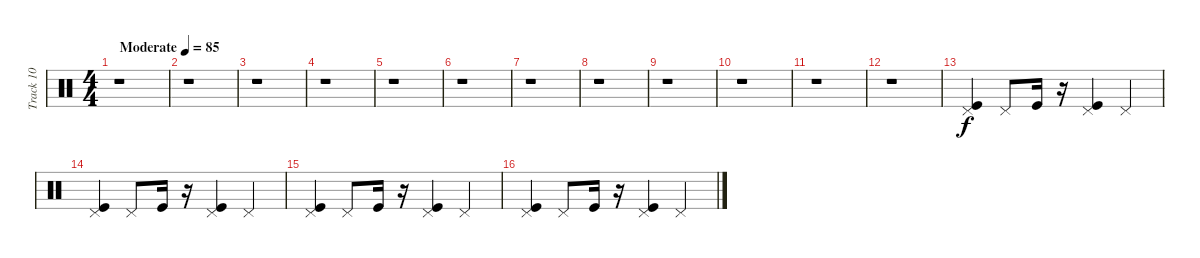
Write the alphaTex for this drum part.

\track ("Track 10" "Track 10") {instrument percussion}
\staff {score}
\articulation defaults
\ts (4 4)
\tempo (85 "Moderate")
\clef neutral
\ks c
r.1{dy f} |
r.1 |
r.1 |
r.1 |
r.1 |
r.1 |
r.1 |
r.1 |
r.1 |
r.1 |
r.1 |
r.1 |
("Kick (hit)" "Pedal Hi-Hat (hit)").4 "Pedal Hi-Hat (hit)".8 "Kick (hit)".16 r.16 ("Kick (hit)" "Pedal Hi-Hat (hit)").4 "Pedal Hi-Hat (hit)".4 |
("Kick (hit)" "Pedal Hi-Hat (hit)").4 "Pedal Hi-Hat (hit)".8 "Kick (hit)".16 r.16 ("Kick (hit)" "Pedal Hi-Hat (hit)").4 "Pedal Hi-Hat (hit)".4 |
("Kick (hit)" "Pedal Hi-Hat (hit)").4 "Pedal Hi-Hat (hit)".8 "Kick (hit)".16 r.16 ("Kick (hit)" "Pedal Hi-Hat (hit)").4 "Pedal Hi-Hat (hit)".4 |
("Kick (hit)" "Pedal Hi-Hat (hit)").4 "Pedal Hi-Hat (hit)".8 "Kick (hit)".16 r.16 ("Kick (hit)" "Pedal Hi-Hat (hit)").4 "Pedal Hi-Hat (hit)".4
